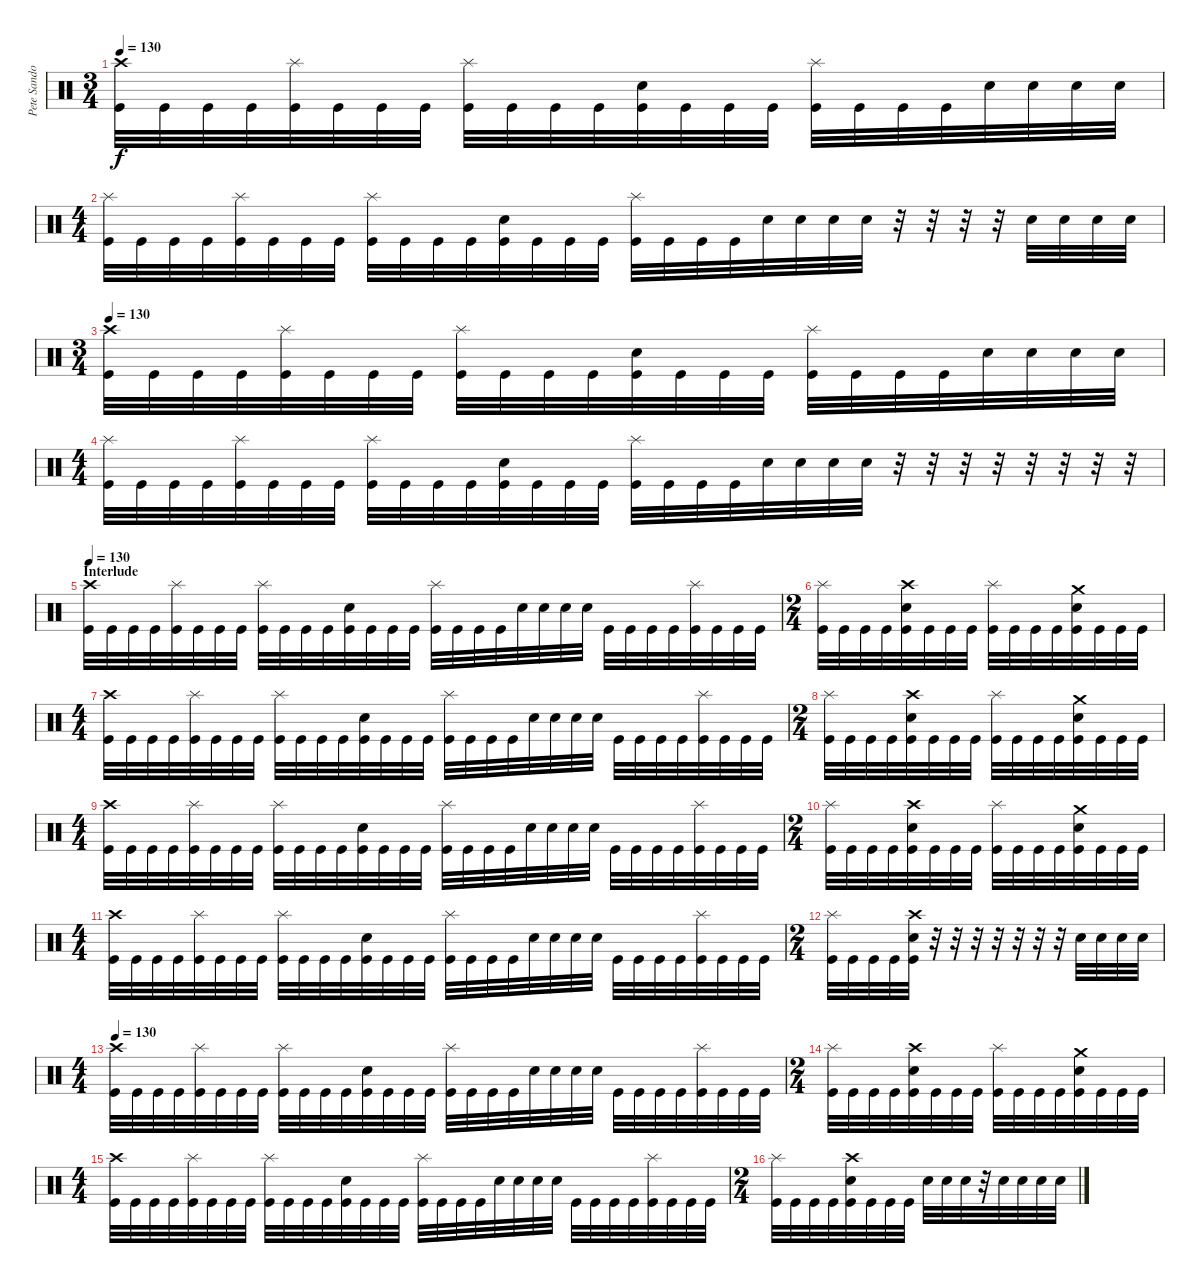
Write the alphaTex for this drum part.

\track ("Pete Sandoval" "Pete Sando") {instrument percussion}
\staff {score}
\articulation defaults
\ts (3 4)
\tempo 130
\clef neutral
\ks c
("Crash high (hit)" "Kick (hit)").32{dy f} "Kick (hit)".32 "Kick (hit)".32 "Kick (hit)".32 ("Splash (hit)" "Kick (hit)").32 "Kick (hit)".32 "Kick (hit)".32 "Kick (hit)".32 ("Splash (hit)" "Kick (hit)").32 "Kick (hit)".32 "Kick (hit)".32 "Kick (hit)".32 ("Electric Snare (hit)" "Kick (hit)").32 "Kick (hit)".32 "Kick (hit)".32 "Kick (hit)".32 ("Splash (hit)" "Kick (hit)").32 "Kick (hit)".32 "Kick (hit)".32 "Kick (hit)".32 "Electric Snare (hit)".32 "Electric Snare (hit)".32 "Electric Snare (hit)".32 "Electric Snare (hit)".32 |
\ts (4 4)
("Splash (hit)" "Kick (hit)").32 "Kick (hit)".32 "Kick (hit)".32 "Kick (hit)".32 ("Splash (hit)" "Kick (hit)").32 "Kick (hit)".32 "Kick (hit)".32 "Kick (hit)".32 ("Splash (hit)" "Kick (hit)").32 "Kick (hit)".32 "Kick (hit)".32 "Kick (hit)".32 ("Electric Snare (hit)" "Kick (hit)").32 "Kick (hit)".32 "Kick (hit)".32 "Kick (hit)".32 ("Splash (hit)" "Kick (hit)").32 "Kick (hit)".32 "Kick (hit)".32 "Kick (hit)".32 "Electric Snare (hit)".32 "Electric Snare (hit)".32 "Electric Snare (hit)".32 "Electric Snare (hit)".32 r.32 r.32 r.32 r.32 "Electric Snare (hit)".32 "Electric Snare (hit)".32 "Electric Snare (hit)".32 "Electric Snare (hit)".32 |
\ts (3 4)
\tempo 130
("Crash high (hit)" "Kick (hit)").32 "Kick (hit)".32 "Kick (hit)".32 "Kick (hit)".32 ("Splash (hit)" "Kick (hit)").32 "Kick (hit)".32 "Kick (hit)".32 "Kick (hit)".32 ("Splash (hit)" "Kick (hit)").32 "Kick (hit)".32 "Kick (hit)".32 "Kick (hit)".32 ("Electric Snare (hit)" "Kick (hit)").32 "Kick (hit)".32 "Kick (hit)".32 "Kick (hit)".32 ("Splash (hit)" "Kick (hit)").32 "Kick (hit)".32 "Kick (hit)".32 "Kick (hit)".32 "Electric Snare (hit)".32 "Electric Snare (hit)".32 "Electric Snare (hit)".32 "Electric Snare (hit)".32 |
\ts (4 4)
("Splash (hit)" "Kick (hit)").32 "Kick (hit)".32 "Kick (hit)".32 "Kick (hit)".32 ("Splash (hit)" "Kick (hit)").32 "Kick (hit)".32 "Kick (hit)".32 "Kick (hit)".32 ("Splash (hit)" "Kick (hit)").32 "Kick (hit)".32 "Kick (hit)".32 "Kick (hit)".32 ("Electric Snare (hit)" "Kick (hit)").32 "Kick (hit)".32 "Kick (hit)".32 "Kick (hit)".32 ("Splash (hit)" "Kick (hit)").32 "Kick (hit)".32 "Kick (hit)".32 "Kick (hit)".32 "Electric Snare (hit)".32 "Electric Snare (hit)".32 "Electric Snare (hit)".32 "Electric Snare (hit)".32 r.32 r.32 r.32 r.32 r.32 r.32 r.32 r.32 |
\section ("" "Interlude")
\tempo 130
("Crash high (hit)" "Kick (hit)").32 "Kick (hit)".32 "Kick (hit)".32 "Kick (hit)".32 ("Splash (hit)" "Kick (hit)").32 "Kick (hit)".32 "Kick (hit)".32 "Kick (hit)".32 ("Splash (hit)" "Kick (hit)").32 "Kick (hit)".32 "Kick (hit)".32 "Kick (hit)".32 ("Electric Snare (hit)" "Kick (hit)").32 "Kick (hit)".32 "Kick (hit)".32 "Kick (hit)".32 ("Splash (hit)" "Kick (hit)").32 "Kick (hit)".32 "Kick (hit)".32 "Kick (hit)".32 "Electric Snare (hit)".32 "Electric Snare (hit)".32 "Electric Snare (hit)".32 "Electric Snare (hit)".32 "Kick (hit)".32 "Kick (hit)".32 "Kick (hit)".32 "Kick (hit)".32 ("Splash (hit)" "Kick (hit)").32 "Kick (hit)".32 "Kick (hit)".32 "Kick (hit)".32 |
\ts (2 4)
("Splash (hit)" "Kick (hit)").32 "Kick (hit)".32 "Kick (hit)".32 "Kick (hit)".32 ("Crash high (hit)" "Electric Snare (hit)" "Kick (hit)").32 "Kick (hit)".32 "Kick (hit)".32 "Kick (hit)".32 ("Splash (hit)" "Kick (hit)").32 "Kick (hit)".32 "Kick (hit)".32 "Kick (hit)".32 ("Crash medium (hit)" "Electric Snare (hit)" "Kick (hit)").32 "Kick (hit)".32 "Kick (hit)".32 "Kick (hit)".32 |
\ts (4 4)
("Crash high (hit)" "Kick (hit)").32 "Kick (hit)".32 "Kick (hit)".32 "Kick (hit)".32 ("Splash (hit)" "Kick (hit)").32 "Kick (hit)".32 "Kick (hit)".32 "Kick (hit)".32 ("Splash (hit)" "Kick (hit)").32 "Kick (hit)".32 "Kick (hit)".32 "Kick (hit)".32 ("Electric Snare (hit)" "Kick (hit)").32 "Kick (hit)".32 "Kick (hit)".32 "Kick (hit)".32 ("Splash (hit)" "Kick (hit)").32 "Kick (hit)".32 "Kick (hit)".32 "Kick (hit)".32 "Electric Snare (hit)".32 "Electric Snare (hit)".32 "Electric Snare (hit)".32 "Electric Snare (hit)".32 "Kick (hit)".32 "Kick (hit)".32 "Kick (hit)".32 "Kick (hit)".32 ("Splash (hit)" "Kick (hit)").32 "Kick (hit)".32 "Kick (hit)".32 "Kick (hit)".32 |
\ts (2 4)
("Splash (hit)" "Kick (hit)").32 "Kick (hit)".32 "Kick (hit)".32 "Kick (hit)".32 ("Crash high (hit)" "Electric Snare (hit)" "Kick (hit)").32 "Kick (hit)".32 "Kick (hit)".32 "Kick (hit)".32 ("Splash (hit)" "Kick (hit)").32 "Kick (hit)".32 "Kick (hit)".32 "Kick (hit)".32 ("Crash medium (hit)" "Electric Snare (hit)" "Kick (hit)").32 "Kick (hit)".32 "Kick (hit)".32 "Kick (hit)".32 |
\ts (4 4)
("Crash high (hit)" "Kick (hit)").32 "Kick (hit)".32 "Kick (hit)".32 "Kick (hit)".32 ("Splash (hit)" "Kick (hit)").32 "Kick (hit)".32 "Kick (hit)".32 "Kick (hit)".32 ("Splash (hit)" "Kick (hit)").32 "Kick (hit)".32 "Kick (hit)".32 "Kick (hit)".32 ("Electric Snare (hit)" "Kick (hit)").32 "Kick (hit)".32 "Kick (hit)".32 "Kick (hit)".32 ("Splash (hit)" "Kick (hit)").32 "Kick (hit)".32 "Kick (hit)".32 "Kick (hit)".32 "Electric Snare (hit)".32 "Electric Snare (hit)".32 "Electric Snare (hit)".32 "Electric Snare (hit)".32 "Kick (hit)".32 "Kick (hit)".32 "Kick (hit)".32 "Kick (hit)".32 ("Splash (hit)" "Kick (hit)").32 "Kick (hit)".32 "Kick (hit)".32 "Kick (hit)".32 |
\ts (2 4)
("Splash (hit)" "Kick (hit)").32 "Kick (hit)".32 "Kick (hit)".32 "Kick (hit)".32 ("Crash high (hit)" "Electric Snare (hit)" "Kick (hit)").32 "Kick (hit)".32 "Kick (hit)".32 "Kick (hit)".32 ("Splash (hit)" "Kick (hit)").32 "Kick (hit)".32 "Kick (hit)".32 "Kick (hit)".32 ("Crash medium (hit)" "Electric Snare (hit)" "Kick (hit)").32 "Kick (hit)".32 "Kick (hit)".32 "Kick (hit)".32 |
\ts (4 4)
("Crash high (hit)" "Kick (hit)").32 "Kick (hit)".32 "Kick (hit)".32 "Kick (hit)".32 ("Splash (hit)" "Kick (hit)").32 "Kick (hit)".32 "Kick (hit)".32 "Kick (hit)".32 ("Splash (hit)" "Kick (hit)").32 "Kick (hit)".32 "Kick (hit)".32 "Kick (hit)".32 ("Electric Snare (hit)" "Kick (hit)").32 "Kick (hit)".32 "Kick (hit)".32 "Kick (hit)".32 ("Splash (hit)" "Kick (hit)").32 "Kick (hit)".32 "Kick (hit)".32 "Kick (hit)".32 "Electric Snare (hit)".32 "Electric Snare (hit)".32 "Electric Snare (hit)".32 "Electric Snare (hit)".32 "Kick (hit)".32 "Kick (hit)".32 "Kick (hit)".32 "Kick (hit)".32 ("Splash (hit)" "Kick (hit)").32 "Kick (hit)".32 "Kick (hit)".32 "Kick (hit)".32 |
\ts (2 4)
("Splash (hit)" "Kick (hit)").32 "Kick (hit)".32 "Kick (hit)".32 "Kick (hit)".32 ("Crash high (hit)" "Electric Snare (hit)" "Kick (hit)").32 r.32 r.32 r.32 r.32 r.32 r.32 r.32 "Electric Snare (hit)".32 "Electric Snare (hit)".32 "Electric Snare (hit)".32 "Electric Snare (hit)".32 |
\ts (4 4)
\tempo 130
("Crash high (hit)" "Kick (hit)").32 "Kick (hit)".32 "Kick (hit)".32 "Kick (hit)".32 ("Splash (hit)" "Kick (hit)").32 "Kick (hit)".32 "Kick (hit)".32 "Kick (hit)".32 ("Splash (hit)" "Kick (hit)").32 "Kick (hit)".32 "Kick (hit)".32 "Kick (hit)".32 ("Electric Snare (hit)" "Kick (hit)").32 "Kick (hit)".32 "Kick (hit)".32 "Kick (hit)".32 ("Splash (hit)" "Kick (hit)").32 "Kick (hit)".32 "Kick (hit)".32 "Kick (hit)".32 "Electric Snare (hit)".32 "Electric Snare (hit)".32 "Electric Snare (hit)".32 "Electric Snare (hit)".32 "Kick (hit)".32 "Kick (hit)".32 "Kick (hit)".32 "Kick (hit)".32 ("Splash (hit)" "Kick (hit)").32 "Kick (hit)".32 "Kick (hit)".32 "Kick (hit)".32 |
\ts (2 4)
("Splash (hit)" "Kick (hit)").32 "Kick (hit)".32 "Kick (hit)".32 "Kick (hit)".32 ("Crash high (hit)" "Electric Snare (hit)" "Kick (hit)").32 "Kick (hit)".32 "Kick (hit)".32 "Kick (hit)".32 ("Splash (hit)" "Kick (hit)").32 "Kick (hit)".32 "Kick (hit)".32 "Kick (hit)".32 ("Crash medium (hit)" "Electric Snare (hit)" "Kick (hit)").32 "Kick (hit)".32 "Kick (hit)".32 "Kick (hit)".32 |
\ts (4 4)
("Crash high (hit)" "Kick (hit)").32 "Kick (hit)".32 "Kick (hit)".32 "Kick (hit)".32 ("Splash (hit)" "Kick (hit)").32 "Kick (hit)".32 "Kick (hit)".32 "Kick (hit)".32 ("Splash (hit)" "Kick (hit)").32 "Kick (hit)".32 "Kick (hit)".32 "Kick (hit)".32 ("Electric Snare (hit)" "Kick (hit)").32 "Kick (hit)".32 "Kick (hit)".32 "Kick (hit)".32 ("Splash (hit)" "Kick (hit)").32 "Kick (hit)".32 "Kick (hit)".32 "Kick (hit)".32 "Electric Snare (hit)".32 "Electric Snare (hit)".32 "Electric Snare (hit)".32 "Electric Snare (hit)".32 "Kick (hit)".32 "Kick (hit)".32 "Kick (hit)".32 "Kick (hit)".32 ("Splash (hit)" "Kick (hit)").32 "Kick (hit)".32 "Kick (hit)".32 "Kick (hit)".32 |
\ts (2 4)
("Splash (hit)" "Kick (hit)").32 "Kick (hit)".32 "Kick (hit)".32 "Kick (hit)".32 ("Crash high (hit)" "Electric Snare (hit)" "Kick (hit)").32 "Kick (hit)".32 "Kick (hit)".32 "Kick (hit)".32 "Electric Snare (hit)".32 "Electric Snare (hit)".32 "Electric Snare (hit)".32 r.32 "Electric Snare (hit)".32 "Electric Snare (hit)".32 "Electric Snare (hit)".32 "Electric Snare (hit)".32
